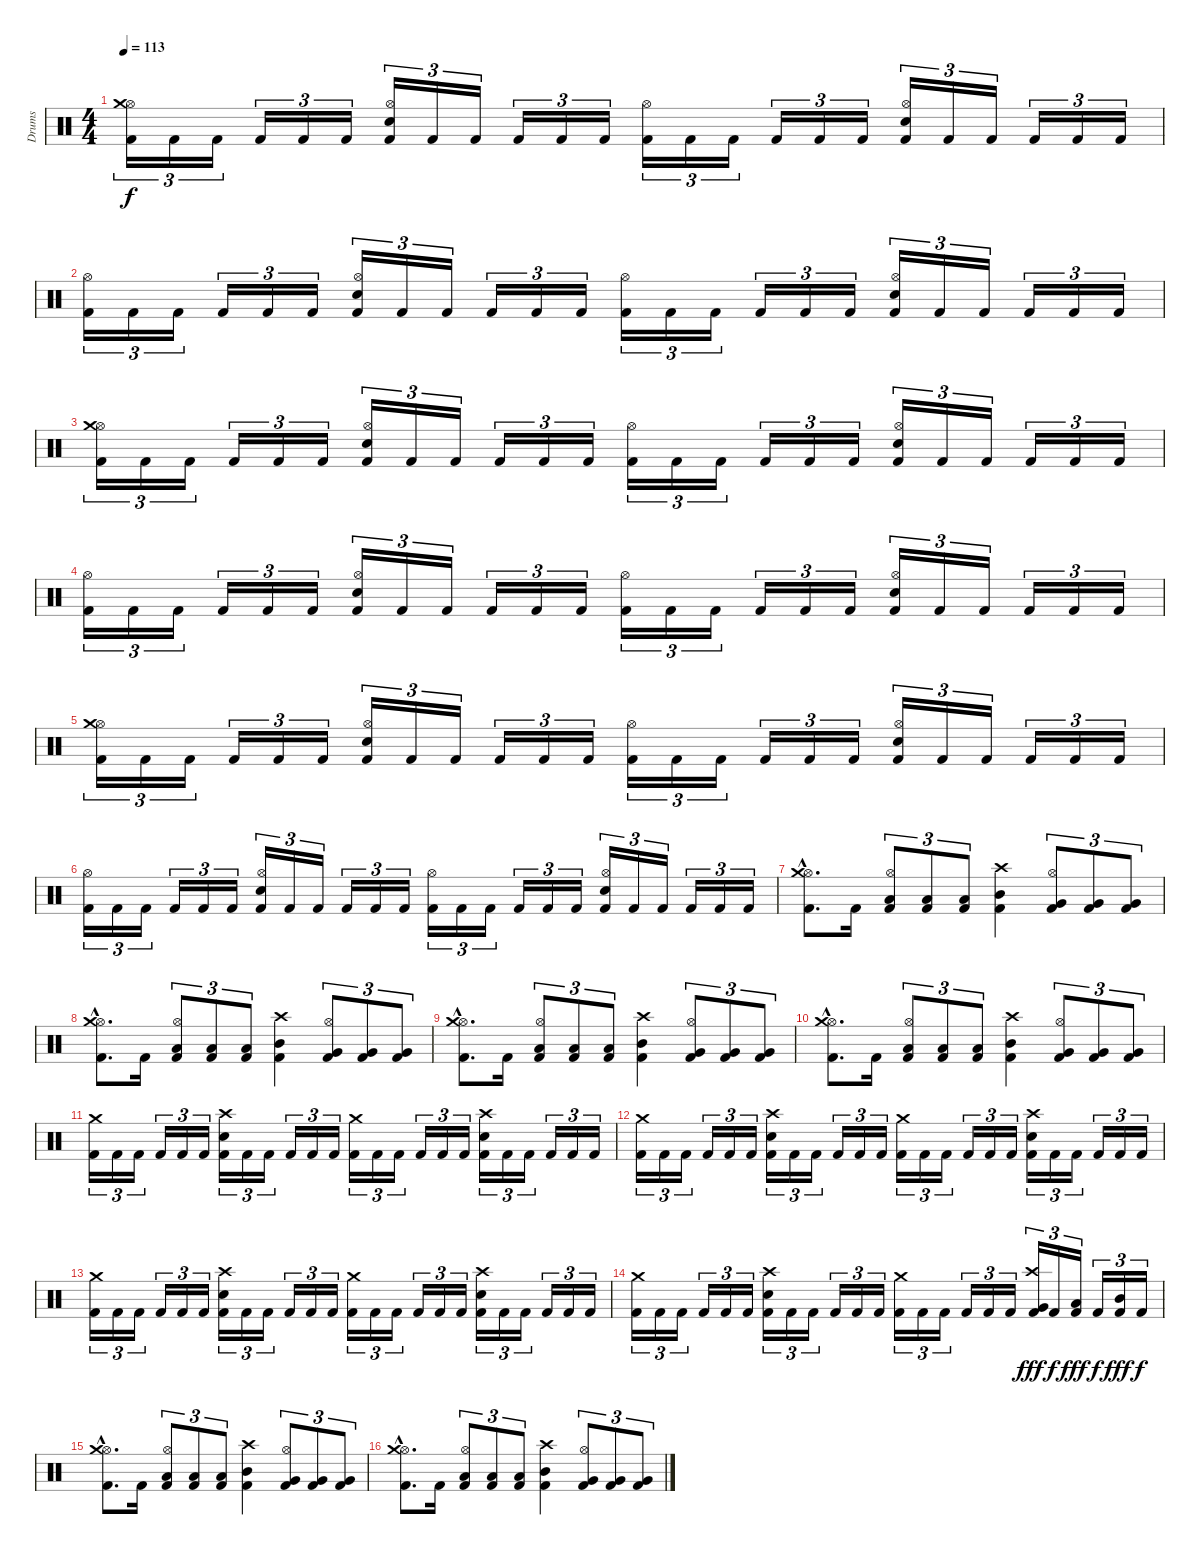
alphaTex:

\track ("Drums" "Drums") {instrument percussion}
\staff {score}
\articulation defaults
\ts (4 4)
\tempo 113
\clef neutral
\ks c
("Kick (hit) 2" "Hi-Hat (open)" "Crash medium (hit)").16{tu (3 2) dy f} "Kick (hit) 2".16{tu (3 2)} "Kick (hit) 2".16{tu (3 2)} "Kick (hit) 2".16{tu (3 2)} "Kick (hit) 2".16{tu (3 2)} "Kick (hit) 2".16{tu (3 2)} ("Kick (hit) 2" "Snare (hit) 2" "Hi-Hat (open)").16{tu (3 2)} "Kick (hit) 2".16{tu (3 2)} "Kick (hit) 2".16{tu (3 2)} "Kick (hit) 2".16{tu (3 2)} "Kick (hit) 2".16{tu (3 2)} "Kick (hit) 2".16{tu (3 2)} ("Kick (hit) 2" "Hi-Hat (open)").16{tu (3 2)} "Kick (hit) 2".16{tu (3 2)} "Kick (hit) 2".16{tu (3 2)} "Kick (hit) 2".16{tu (3 2)} "Kick (hit) 2".16{tu (3 2)} "Kick (hit) 2".16{tu (3 2)} ("Kick (hit) 2" "Snare (hit) 2" "Hi-Hat (open)").16{tu (3 2)} "Kick (hit) 2".16{tu (3 2)} "Kick (hit) 2".16{tu (3 2)} "Kick (hit) 2".16{tu (3 2)} "Kick (hit) 2".16{tu (3 2)} "Kick (hit) 2".16{tu (3 2)} |
("Kick (hit) 2" "Hi-Hat (open)").16{tu (3 2)} "Kick (hit) 2".16{tu (3 2)} "Kick (hit) 2".16{tu (3 2)} "Kick (hit) 2".16{tu (3 2)} "Kick (hit) 2".16{tu (3 2)} "Kick (hit) 2".16{tu (3 2)} ("Kick (hit) 2" "Snare (hit) 2" "Hi-Hat (open)").16{tu (3 2)} "Kick (hit) 2".16{tu (3 2)} "Kick (hit) 2".16{tu (3 2)} "Kick (hit) 2".16{tu (3 2)} "Kick (hit) 2".16{tu (3 2)} "Kick (hit) 2".16{tu (3 2)} ("Kick (hit) 2" "Hi-Hat (open)").16{tu (3 2)} "Kick (hit) 2".16{tu (3 2)} "Kick (hit) 2".16{tu (3 2)} "Kick (hit) 2".16{tu (3 2)} "Kick (hit) 2".16{tu (3 2)} "Kick (hit) 2".16{tu (3 2)} ("Kick (hit) 2" "Snare (hit) 2" "Hi-Hat (open)").16{tu (3 2)} "Kick (hit) 2".16{tu (3 2)} "Kick (hit) 2".16{tu (3 2)} "Kick (hit) 2".16{tu (3 2)} "Kick (hit) 2".16{tu (3 2)} "Kick (hit) 2".16{tu (3 2)} |
("Kick (hit) 2" "Hi-Hat (open)" "Crash medium (hit)").16{tu (3 2)} "Kick (hit) 2".16{tu (3 2)} "Kick (hit) 2".16{tu (3 2)} "Kick (hit) 2".16{tu (3 2)} "Kick (hit) 2".16{tu (3 2)} "Kick (hit) 2".16{tu (3 2)} ("Kick (hit) 2" "Snare (hit) 2" "Hi-Hat (open)").16{tu (3 2)} "Kick (hit) 2".16{tu (3 2)} "Kick (hit) 2".16{tu (3 2)} "Kick (hit) 2".16{tu (3 2)} "Kick (hit) 2".16{tu (3 2)} "Kick (hit) 2".16{tu (3 2)} ("Kick (hit) 2" "Hi-Hat (open)").16{tu (3 2)} "Kick (hit) 2".16{tu (3 2)} "Kick (hit) 2".16{tu (3 2)} "Kick (hit) 2".16{tu (3 2)} "Kick (hit) 2".16{tu (3 2)} "Kick (hit) 2".16{tu (3 2)} ("Kick (hit) 2" "Snare (hit) 2" "Hi-Hat (open)").16{tu (3 2)} "Kick (hit) 2".16{tu (3 2)} "Kick (hit) 2".16{tu (3 2)} "Kick (hit) 2".16{tu (3 2)} "Kick (hit) 2".16{tu (3 2)} "Kick (hit) 2".16{tu (3 2)} |
("Kick (hit) 2" "Hi-Hat (open)").16{tu (3 2)} "Kick (hit) 2".16{tu (3 2)} "Kick (hit) 2".16{tu (3 2)} "Kick (hit) 2".16{tu (3 2)} "Kick (hit) 2".16{tu (3 2)} "Kick (hit) 2".16{tu (3 2)} ("Kick (hit) 2" "Snare (hit) 2" "Hi-Hat (open)").16{tu (3 2)} "Kick (hit) 2".16{tu (3 2)} "Kick (hit) 2".16{tu (3 2)} "Kick (hit) 2".16{tu (3 2)} "Kick (hit) 2".16{tu (3 2)} "Kick (hit) 2".16{tu (3 2)} ("Kick (hit) 2" "Hi-Hat (open)").16{tu (3 2)} "Kick (hit) 2".16{tu (3 2)} "Kick (hit) 2".16{tu (3 2)} "Kick (hit) 2".16{tu (3 2)} "Kick (hit) 2".16{tu (3 2)} "Kick (hit) 2".16{tu (3 2)} ("Kick (hit) 2" "Snare (hit) 2" "Hi-Hat (open)").16{tu (3 2)} "Kick (hit) 2".16{tu (3 2)} "Kick (hit) 2".16{tu (3 2)} "Kick (hit) 2".16{tu (3 2)} "Kick (hit) 2".16{tu (3 2)} "Kick (hit) 2".16{tu (3 2)} |
("Kick (hit) 2" "Hi-Hat (open)" "Crash medium (hit)").16{tu (3 2)} "Kick (hit) 2".16{tu (3 2)} "Kick (hit) 2".16{tu (3 2)} "Kick (hit) 2".16{tu (3 2)} "Kick (hit) 2".16{tu (3 2)} "Kick (hit) 2".16{tu (3 2)} ("Kick (hit) 2" "Snare (hit) 2" "Hi-Hat (open)").16{tu (3 2)} "Kick (hit) 2".16{tu (3 2)} "Kick (hit) 2".16{tu (3 2)} "Kick (hit) 2".16{tu (3 2)} "Kick (hit) 2".16{tu (3 2)} "Kick (hit) 2".16{tu (3 2)} ("Kick (hit) 2" "Hi-Hat (open)").16{tu (3 2)} "Kick (hit) 2".16{tu (3 2)} "Kick (hit) 2".16{tu (3 2)} "Kick (hit) 2".16{tu (3 2)} "Kick (hit) 2".16{tu (3 2)} "Kick (hit) 2".16{tu (3 2)} ("Kick (hit) 2" "Snare (hit) 2" "Hi-Hat (open)").16{tu (3 2)} "Kick (hit) 2".16{tu (3 2)} "Kick (hit) 2".16{tu (3 2)} "Kick (hit) 2".16{tu (3 2)} "Kick (hit) 2".16{tu (3 2)} "Kick (hit) 2".16{tu (3 2)} |
("Kick (hit) 2" "Hi-Hat (open)").16{tu (3 2)} "Kick (hit) 2".16{tu (3 2)} "Kick (hit) 2".16{tu (3 2)} "Kick (hit) 2".16{tu (3 2)} "Kick (hit) 2".16{tu (3 2)} "Kick (hit) 2".16{tu (3 2)} ("Kick (hit) 2" "Snare (hit) 2" "Hi-Hat (open)").16{tu (3 2)} "Kick (hit) 2".16{tu (3 2)} "Kick (hit) 2".16{tu (3 2)} "Kick (hit) 2".16{tu (3 2)} "Kick (hit) 2".16{tu (3 2)} "Kick (hit) 2".16{tu (3 2)} ("Kick (hit) 2" "Hi-Hat (open)").16{tu (3 2)} "Kick (hit) 2".16{tu (3 2)} "Kick (hit) 2".16{tu (3 2)} "Kick (hit) 2".16{tu (3 2)} "Kick (hit) 2".16{tu (3 2)} "Kick (hit) 2".16{tu (3 2)} ("Kick (hit) 2" "Snare (hit) 2" "Hi-Hat (open)").16{tu (3 2)} "Kick (hit) 2".16{tu (3 2)} "Kick (hit) 2".16{tu (3 2)} "Kick (hit) 2".16{tu (3 2)} "Kick (hit) 2".16{tu (3 2)} "Kick (hit) 2".16{tu (3 2)} |
("Kick (hit) 2"{hac} "Hi-Hat (open)"{hac} "Crash medium (hit)"{hac}).8{d} "Kick (hit) 2".16 ("Kick (hit) 2" "Low Tom (hit)" "Hi-Hat (open)").8{tu (3 2)} ("Kick (hit) 2" "Low Tom (hit)").8{tu (3 2)} ("Kick (hit) 2" "Low Tom (hit)").8{tu (3 2)} ("Kick (hit) 2" "Mid Tom (hit)" "Crash high (hit)").4 ("Kick (hit) 2" "Very Low Tom (hit)" "Hi-Hat (open)").8{tu (3 2)} ("Kick (hit) 2" "Very Low Tom (hit)").8{tu (3 2)} ("Kick (hit) 2" "Very Low Tom (hit)").8{tu (3 2)} |
("Kick (hit) 2"{hac} "Hi-Hat (open)"{hac} "Crash medium (hit)"{hac}).8{d} "Kick (hit) 2".16 ("Kick (hit) 2" "Low Tom (hit)" "Hi-Hat (open)").8{tu (3 2)} ("Kick (hit) 2" "Low Tom (hit)").8{tu (3 2)} ("Kick (hit) 2" "Low Tom (hit)").8{tu (3 2)} ("Kick (hit) 2" "Mid Tom (hit)" "Crash high (hit)").4 ("Kick (hit) 2" "Very Low Tom (hit)" "Hi-Hat (open)").8{tu (3 2)} ("Kick (hit) 2" "Very Low Tom (hit)").8{tu (3 2)} ("Kick (hit) 2" "Very Low Tom (hit)").8{tu (3 2)} |
("Kick (hit) 2"{hac} "Hi-Hat (open)"{hac} "Crash medium (hit)"{hac}).8{d} "Kick (hit) 2".16 ("Kick (hit) 2" "Low Tom (hit)" "Hi-Hat (open)").8{tu (3 2)} ("Kick (hit) 2" "Low Tom (hit)").8{tu (3 2)} ("Kick (hit) 2" "Low Tom (hit)").8{tu (3 2)} ("Kick (hit) 2" "Mid Tom (hit)" "Crash high (hit)").4 ("Kick (hit) 2" "Very Low Tom (hit)" "Hi-Hat (open)").8{tu (3 2)} ("Kick (hit) 2" "Very Low Tom (hit)").8{tu (3 2)} ("Kick (hit) 2" "Very Low Tom (hit)").8{tu (3 2)} |
("Kick (hit) 2"{hac} "Hi-Hat (open)"{hac} "Crash medium (hit)"{hac}).8{d} "Kick (hit) 2".16 ("Kick (hit) 2" "Low Tom (hit)" "Hi-Hat (open)").8{tu (3 2)} ("Kick (hit) 2" "Low Tom (hit)").8{tu (3 2)} ("Kick (hit) 2" "Low Tom (hit)").8{tu (3 2)} ("Kick (hit) 2" "Mid Tom (hit)" "Crash high (hit)").4 ("Kick (hit) 2" "Very Low Tom (hit)" "Hi-Hat (open)").8{tu (3 2)} ("Kick (hit) 2" "Very Low Tom (hit)").8{tu (3 2)} ("Kick (hit) 2" "Very Low Tom (hit)").8{tu (3 2)} |
("Kick (hit) 2" "Crash medium (hit)").16{tu (3 2)} "Kick (hit) 2".16{tu (3 2)} "Kick (hit) 2".16{tu (3 2)} "Kick (hit) 2".16{tu (3 2)} "Kick (hit) 2".16{tu (3 2)} "Kick (hit) 2".16{tu (3 2)} ("Kick (hit) 2" "Snare (hit) 2" "Crash high (hit)").16{tu (3 2)} "Kick (hit) 2".16{tu (3 2)} "Kick (hit) 2".16{tu (3 2)} "Kick (hit) 2".16{tu (3 2)} "Kick (hit) 2".16{tu (3 2)} "Kick (hit) 2".16{tu (3 2)} ("Kick (hit) 2" "Crash medium (hit)").16{tu (3 2)} "Kick (hit) 2".16{tu (3 2)} "Kick (hit) 2".16{tu (3 2)} "Kick (hit) 2".16{tu (3 2)} "Kick (hit) 2".16{tu (3 2)} "Kick (hit) 2".16{tu (3 2)} ("Kick (hit) 2" "Snare (hit) 2" "Crash high (hit)").16{tu (3 2)} "Kick (hit) 2".16{tu (3 2)} "Kick (hit) 2".16{tu (3 2)} "Kick (hit) 2".16{tu (3 2)} "Kick (hit) 2".16{tu (3 2)} "Kick (hit) 2".16{tu (3 2)} |
("Kick (hit) 2" "Crash medium (hit)").16{tu (3 2)} "Kick (hit) 2".16{tu (3 2)} "Kick (hit) 2".16{tu (3 2)} "Kick (hit) 2".16{tu (3 2)} "Kick (hit) 2".16{tu (3 2)} "Kick (hit) 2".16{tu (3 2)} ("Kick (hit) 2" "Snare (hit) 2" "Crash high (hit)").16{tu (3 2)} "Kick (hit) 2".16{tu (3 2)} "Kick (hit) 2".16{tu (3 2)} "Kick (hit) 2".16{tu (3 2)} "Kick (hit) 2".16{tu (3 2)} "Kick (hit) 2".16{tu (3 2)} ("Kick (hit) 2" "Crash medium (hit)").16{tu (3 2)} "Kick (hit) 2".16{tu (3 2)} "Kick (hit) 2".16{tu (3 2)} "Kick (hit) 2".16{tu (3 2)} "Kick (hit) 2".16{tu (3 2)} "Kick (hit) 2".16{tu (3 2)} ("Kick (hit) 2" "Snare (hit) 2" "Crash high (hit)").16{tu (3 2)} "Kick (hit) 2".16{tu (3 2)} "Kick (hit) 2".16{tu (3 2)} "Kick (hit) 2".16{tu (3 2)} "Kick (hit) 2".16{tu (3 2)} "Kick (hit) 2".16{tu (3 2)} |
("Kick (hit) 2" "Crash medium (hit)").16{tu (3 2)} "Kick (hit) 2".16{tu (3 2)} "Kick (hit) 2".16{tu (3 2)} "Kick (hit) 2".16{tu (3 2)} "Kick (hit) 2".16{tu (3 2)} "Kick (hit) 2".16{tu (3 2)} ("Kick (hit) 2" "Snare (hit) 2" "Crash high (hit)").16{tu (3 2)} "Kick (hit) 2".16{tu (3 2)} "Kick (hit) 2".16{tu (3 2)} "Kick (hit) 2".16{tu (3 2)} "Kick (hit) 2".16{tu (3 2)} "Kick (hit) 2".16{tu (3 2)} ("Kick (hit) 2" "Crash medium (hit)").16{tu (3 2)} "Kick (hit) 2".16{tu (3 2)} "Kick (hit) 2".16{tu (3 2)} "Kick (hit) 2".16{tu (3 2)} "Kick (hit) 2".16{tu (3 2)} "Kick (hit) 2".16{tu (3 2)} ("Kick (hit) 2" "Snare (hit) 2" "Crash high (hit)").16{tu (3 2)} "Kick (hit) 2".16{tu (3 2)} "Kick (hit) 2".16{tu (3 2)} "Kick (hit) 2".16{tu (3 2)} "Kick (hit) 2".16{tu (3 2)} "Kick (hit) 2".16{tu (3 2)} |
("Kick (hit) 2" "Crash medium (hit)").16{tu (3 2)} "Kick (hit) 2".16{tu (3 2)} "Kick (hit) 2".16{tu (3 2)} "Kick (hit) 2".16{tu (3 2)} "Kick (hit) 2".16{tu (3 2)} "Kick (hit) 2".16{tu (3 2)} ("Kick (hit) 2" "Snare (hit) 2" "Crash high (hit)").16{tu (3 2)} "Kick (hit) 2".16{tu (3 2)} "Kick (hit) 2".16{tu (3 2)} "Kick (hit) 2".16{tu (3 2)} "Kick (hit) 2".16{tu (3 2)} "Kick (hit) 2".16{tu (3 2)} ("Kick (hit) 2" "Crash medium (hit)").16{tu (3 2)} "Kick (hit) 2".16{tu (3 2)} "Kick (hit) 2".16{tu (3 2)} "Kick (hit) 2".16{tu (3 2)} "Kick (hit) 2".16{tu (3 2)} "Kick (hit) 2".16{tu (3 2)} ("Kick (hit) 2" "Very Low Tom (hit)" "Crash high (hit)").16{tu (3 2) dy fff} "Kick (hit) 2".16{tu (3 2) dy f} ("Kick (hit) 2" "Low Tom (hit)").16{tu (3 2) dy fff} "Kick (hit) 2".16{tu (3 2) dy f} ("Kick (hit) 2" "Mid Tom (hit)").16{tu (3 2) dy fff} "Kick (hit) 2".16{tu (3 2) dy f} |
("Kick (hit) 2"{hac} "Hi-Hat (open)"{hac} "Crash medium (hit)"{hac}).8{d} "Kick (hit) 2".16 ("Kick (hit) 2" "Low Tom (hit)" "Hi-Hat (open)").8{tu (3 2)} ("Kick (hit) 2" "Low Tom (hit)").8{tu (3 2)} ("Kick (hit) 2" "Low Tom (hit)").8{tu (3 2)} ("Kick (hit) 2" "Mid Tom (hit)" "Crash high (hit)").4 ("Kick (hit) 2" "Very Low Tom (hit)" "Hi-Hat (open)").8{tu (3 2)} ("Kick (hit) 2" "Very Low Tom (hit)").8{tu (3 2)} ("Kick (hit) 2" "Very Low Tom (hit)").8{tu (3 2)} |
("Kick (hit) 2"{hac} "Hi-Hat (open)"{hac} "Crash medium (hit)"{hac}).8{d} "Kick (hit) 2".16 ("Kick (hit) 2" "Low Tom (hit)" "Hi-Hat (open)").8{tu (3 2)} ("Kick (hit) 2" "Low Tom (hit)").8{tu (3 2)} ("Kick (hit) 2" "Low Tom (hit)").8{tu (3 2)} ("Kick (hit) 2" "Mid Tom (hit)" "Crash high (hit)").4 ("Kick (hit) 2" "Very Low Tom (hit)" "Hi-Hat (open)").8{tu (3 2)} ("Kick (hit) 2" "Very Low Tom (hit)").8{tu (3 2)} ("Kick (hit) 2" "Very Low Tom (hit)").8{tu (3 2)}
